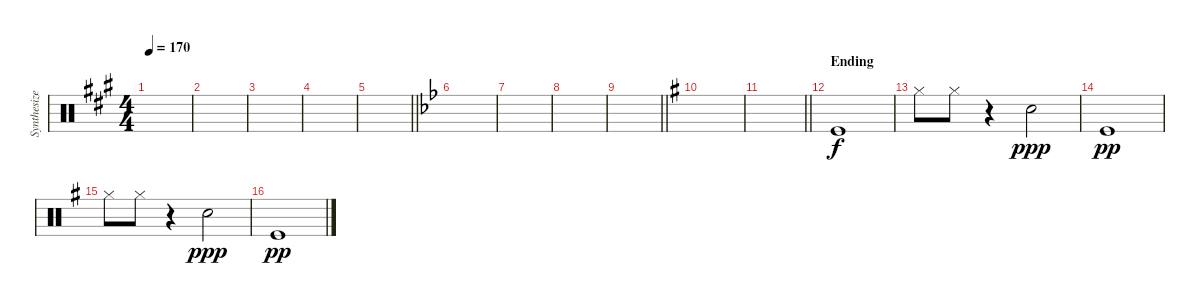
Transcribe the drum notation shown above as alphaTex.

\track ("Synthesizer B" "Synthesize") {instrument percussion}
\staff {score}
\articulation defaults
\ts (4 4)
\tempo 170
\clef neutral
\ks a
|
|
|
|
\barLineRight lightlight
|
\ks bb
|
|
|
\barLineRight lightlight
|
\ks g
|
\barLineRight lightlight
|
\section ("" "Ending")
"Kick (hit)".1 |
"Hi-Hat (closed)".8 "Hi-Hat (closed)".8 r.4 "Snare (hit) 2".2{dy ppp} |
"Kick (hit)".1{dy pp} |
"Hi-Hat (closed)".8 "Hi-Hat (closed)".8 r.4 "Snare (hit) 2".2{dy ppp} |
"Kick (hit)".1{dy pp}
